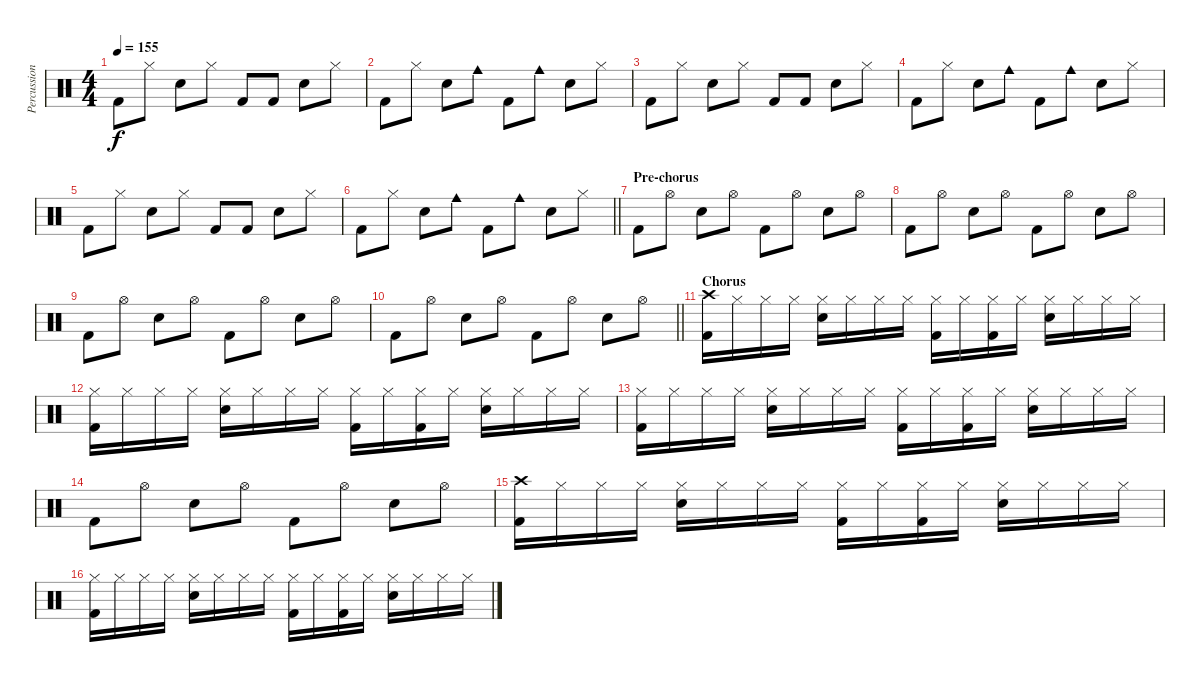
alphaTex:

\track ("Percussioni" "Percussion") {instrument percussion}
\staff {score}
\articulation defaults
\ts (4 4)
\tempo 155
\clef neutral
\ks c "Kick (hit) 2".8{dy f} "Hi-Hat (closed)".8 "Snare (hit) 2".8 "Hi-Hat (closed)".8 "Kick (hit) 2".8 "Kick (hit) 2".8 "Snare (hit) 2".8 "Hi-Hat (closed)".8
|
"Kick (hit) 2".8 "Hi-Hat (closed)".8 "Snare (hit) 2".8 "Cowbell medium (hit)".8 "Kick (hit) 2".8 "Cowbell medium (hit)".8 "Snare (hit) 2".8 "Hi-Hat (closed)".8 |
"Kick (hit) 2".8 "Hi-Hat (closed)".8 "Snare (hit) 2".8 "Hi-Hat (closed)".8 "Kick (hit) 2".8 "Kick (hit) 2".8 "Snare (hit) 2".8 "Hi-Hat (closed)".8 |
"Kick (hit) 2".8 "Hi-Hat (closed)".8 "Snare (hit) 2".8 "Cowbell medium (hit)".8 "Kick (hit) 2".8 "Cowbell medium (hit)".8 "Snare (hit) 2".8 "Hi-Hat (closed)".8 |
"Kick (hit) 2".8 "Hi-Hat (closed)".8 "Snare (hit) 2".8 "Hi-Hat (closed)".8 "Kick (hit) 2".8 "Kick (hit) 2".8 "Snare (hit) 2".8 "Hi-Hat (closed)".8 |
\barLineRight lightlight "Kick (hit) 2".8 "Hi-Hat (closed)".8 "Snare (hit) 2".8 "Cowbell medium (hit)".8 "Kick (hit) 2".8 "Cowbell medium (hit)".8 "Snare (hit) 2".8 "Hi-Hat (closed)".8
|
\section ("" "Pre-chorus")
"Kick (hit) 2".8 "Hi-Hat (open)".8 "Snare (hit) 2".8 "Hi-Hat (open)".8 "Kick (hit) 2".8 "Hi-Hat (open)".8 "Snare (hit) 2".8 "Hi-Hat (open)".8 |
"Kick (hit) 2".8 "Hi-Hat (open)".8 "Snare (hit) 2".8 "Hi-Hat (open)".8 "Kick (hit) 2".8 "Hi-Hat (open)".8 "Snare (hit) 2".8 "Hi-Hat (open)".8 |
"Kick (hit) 2".8 "Hi-Hat (open)".8 "Snare (hit) 2".8 "Hi-Hat (open)".8 "Kick (hit) 2".8 "Hi-Hat (open)".8 "Snare (hit) 2".8 "Hi-Hat (open)".8 |
\barLineRight lightlight "Kick (hit) 2".8 "Hi-Hat (open)".8 "Snare (hit) 2".8 "Hi-Hat (open)".8 "Kick (hit) 2".8 "Hi-Hat (open)".8 "Snare (hit) 2".8 "Hi-Hat (open)".8
|
\section ("" "Chorus")
("Crash high (hit)" "Kick (hit) 2").16 "Hi-Hat (closed)".16 "Hi-Hat (closed)".16 "Hi-Hat (closed)".16 ("Hi-Hat (closed)" "Snare (hit) 2").16 "Hi-Hat (closed)".16 "Hi-Hat (closed)".16 "Hi-Hat (closed)".16 ("Hi-Hat (closed)" "Kick (hit) 2").16 "Hi-Hat (closed)".16 ("Hi-Hat (closed)" "Kick (hit) 2").16 "Hi-Hat (closed)".16 ("Hi-Hat (closed)" "Snare (hit) 2").16 "Hi-Hat (closed)".16 "Hi-Hat (closed)".16 "Hi-Hat (closed)".16 |
("Hi-Hat (closed)" "Kick (hit) 2").16 "Hi-Hat (closed)".16 "Hi-Hat (closed)".16 "Hi-Hat (closed)".16 ("Hi-Hat (closed)" "Snare (hit) 2").16 "Hi-Hat (closed)".16 "Hi-Hat (closed)".16 "Hi-Hat (closed)".16 ("Hi-Hat (closed)" "Kick (hit) 2").16 "Hi-Hat (closed)".16 ("Hi-Hat (closed)" "Kick (hit) 2").16 "Hi-Hat (closed)".16 ("Hi-Hat (closed)" "Snare (hit) 2").16 "Hi-Hat (closed)".16 "Hi-Hat (closed)".16 "Hi-Hat (closed)".16 |
("Hi-Hat (closed)" "Kick (hit) 2").16 "Hi-Hat (closed)".16 "Hi-Hat (closed)".16 "Hi-Hat (closed)".16 ("Hi-Hat (closed)" "Snare (hit) 2").16 "Hi-Hat (closed)".16 "Hi-Hat (closed)".16 "Hi-Hat (closed)".16 ("Hi-Hat (closed)" "Kick (hit) 2").16 "Hi-Hat (closed)".16 ("Hi-Hat (closed)" "Kick (hit) 2").16 "Hi-Hat (closed)".16 ("Hi-Hat (closed)" "Snare (hit) 2").16 "Hi-Hat (closed)".16 "Hi-Hat (closed)".16 "Hi-Hat (closed)".16 |
"Kick (hit) 2".8 "Hi-Hat (open)".8 "Snare (hit) 2".8 "Hi-Hat (open)".8 "Kick (hit) 2".8 "Hi-Hat (open)".8 "Snare (hit) 2".8 "Hi-Hat (open)".8 |
("Crash high (hit)" "Kick (hit) 2").16 "Hi-Hat (closed)".16 "Hi-Hat (closed)".16 "Hi-Hat (closed)".16 ("Hi-Hat (closed)" "Snare (hit) 2").16 "Hi-Hat (closed)".16 "Hi-Hat (closed)".16 "Hi-Hat (closed)".16 ("Hi-Hat (closed)" "Kick (hit) 2").16 "Hi-Hat (closed)".16 ("Hi-Hat (closed)" "Kick (hit) 2").16 "Hi-Hat (closed)".16 ("Hi-Hat (closed)" "Snare (hit) 2").16 "Hi-Hat (closed)".16 "Hi-Hat (closed)".16 "Hi-Hat (closed)".16 |
("Hi-Hat (closed)" "Kick (hit) 2").16 "Hi-Hat (closed)".16 "Hi-Hat (closed)".16 "Hi-Hat (closed)".16 ("Hi-Hat (closed)" "Snare (hit) 2").16 "Hi-Hat (closed)".16 "Hi-Hat (closed)".16 "Hi-Hat (closed)".16 ("Hi-Hat (closed)" "Kick (hit) 2").16 "Hi-Hat (closed)".16 ("Hi-Hat (closed)" "Kick (hit) 2").16 "Hi-Hat (closed)".16 ("Hi-Hat (closed)" "Snare (hit) 2").16 "Hi-Hat (closed)".16 "Hi-Hat (closed)".16 "Hi-Hat (closed)".16
